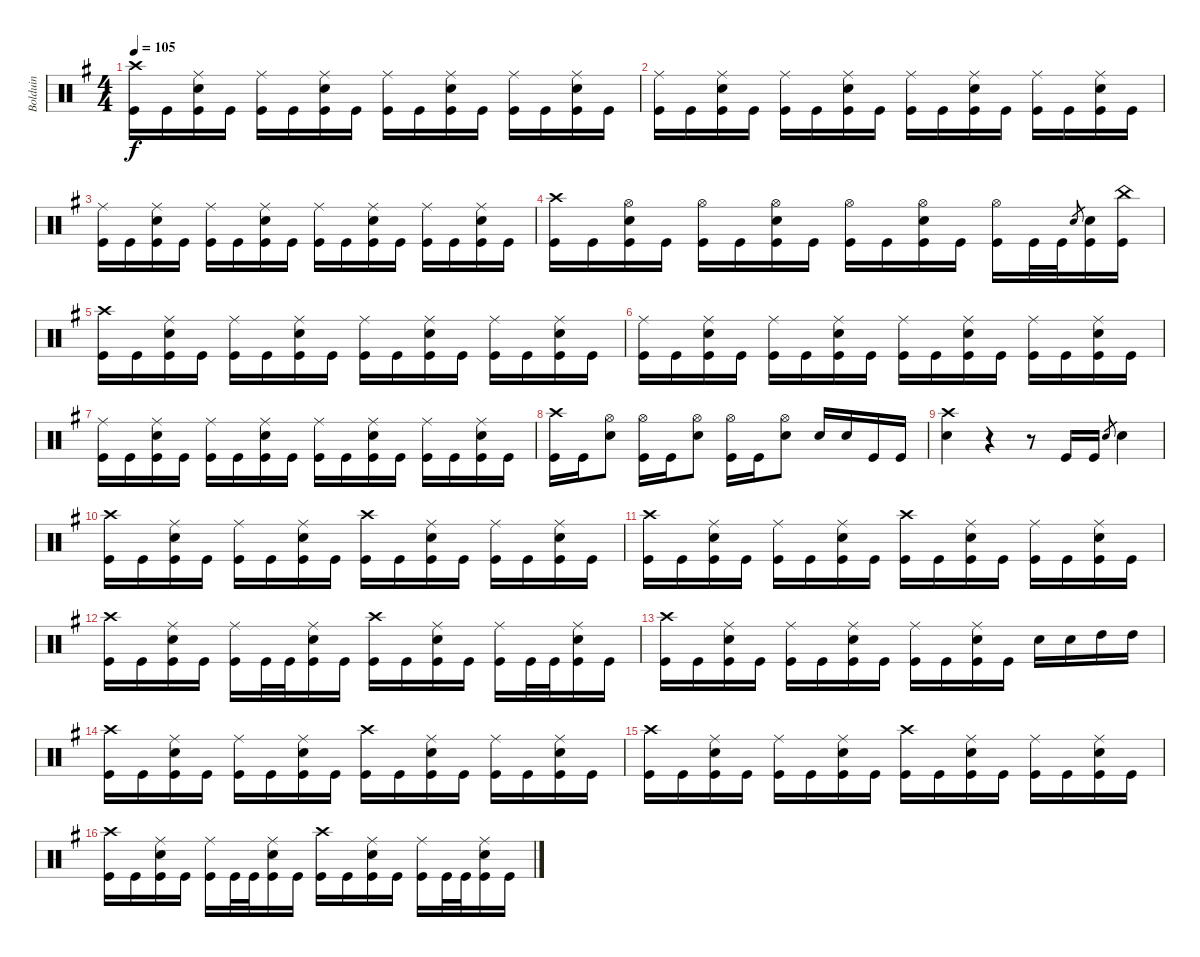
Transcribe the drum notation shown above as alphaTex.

\track ("Bolduin" "Bolduin") {instrument percussion}
\staff {score}
\articulation defaults
\ts (4 4)
\tempo 105
\clef neutral
\ks eminor
("Kick (hit)" "Crash high (hit)").16{dy f} "Kick (hit)".16 ("Kick (hit)" "Ride (middle)" "Snare (hit) 2").16 "Kick (hit)".16 ("Kick (hit)" "Ride (middle)").16 "Kick (hit)".16 ("Kick (hit)" "Ride (middle)" "Snare (hit) 2").16 "Kick (hit)".16 ("Kick (hit)" "Ride (middle)").16 "Kick (hit)".16 ("Kick (hit)" "Ride (middle)" "Snare (hit) 2").16 "Kick (hit)".16 ("Kick (hit)" "Ride (middle)").16 "Kick (hit)".16 ("Kick (hit)" "Ride (middle)" "Snare (hit) 2").16 "Kick (hit)".16 |
("Kick (hit)" "Ride (middle)").16 "Kick (hit)".16 ("Kick (hit)" "Ride (middle)" "Snare (hit) 2").16 "Kick (hit)".16 ("Kick (hit)" "Ride (middle)").16 "Kick (hit)".16 ("Kick (hit)" "Ride (middle)" "Snare (hit) 2").16 "Kick (hit)".16 ("Kick (hit)" "Ride (middle)").16 "Kick (hit)".16 ("Kick (hit)" "Ride (middle)" "Snare (hit) 2").16 "Kick (hit)".16 ("Kick (hit)" "Ride (middle)").16 "Kick (hit)".16 ("Kick (hit)" "Ride (middle)" "Snare (hit) 2").16 "Kick (hit)".16 |
("Kick (hit)" "Ride (middle)").16 "Kick (hit)".16 ("Kick (hit)" "Ride (middle)" "Snare (hit) 2").16 "Kick (hit)".16 ("Kick (hit)" "Ride (middle)").16 "Kick (hit)".16 ("Kick (hit)" "Ride (middle)" "Snare (hit) 2").16 "Kick (hit)".16 ("Kick (hit)" "Ride (middle)").16 "Kick (hit)".16 ("Kick (hit)" "Ride (middle)" "Snare (hit) 2").16 "Kick (hit)".16 ("Kick (hit)" "Ride (middle)").16 "Kick (hit)".16 ("Kick (hit)" "Ride (middle)" "Snare (hit) 2").16 "Kick (hit)".16 |
("Kick (hit)" "Crash high (hit)").16 "Kick (hit)".16 ("Kick (hit)" "Hi-Hat (open)" "Snare (hit) 2").16 "Kick (hit)".16 ("Kick (hit)" "Hi-Hat (open)").16 "Kick (hit)".16 ("Kick (hit)" "Hi-Hat (open)" "Snare (hit) 2").16 "Kick (hit)".16 ("Kick (hit)" "Hi-Hat (open)").16 "Kick (hit)".16 ("Kick (hit)" "Hi-Hat (open)" "Snare (hit) 2").16 "Kick (hit)".16 ("Kick (hit)" "Hi-Hat (open)").16 "Kick (hit)".32 "Kick (hit)".32 "Snare (hit) 2".8{gr} ("Kick (hit)" "Snare (hit) 2").16 ("Kick (hit)" "China (hit)").16 |
("Kick (hit)" "Crash high (hit)").16 "Kick (hit)".16 ("Kick (hit)" "Ride (middle)" "Snare (hit) 2").16 "Kick (hit)".16 ("Kick (hit)" "Ride (middle)").16 "Kick (hit)".16 ("Kick (hit)" "Ride (middle)" "Snare (hit) 2").16 "Kick (hit)".16 ("Kick (hit)" "Ride (middle)").16 "Kick (hit)".16 ("Kick (hit)" "Ride (middle)" "Snare (hit) 2").16 "Kick (hit)".16 ("Kick (hit)" "Ride (middle)").16 "Kick (hit)".16 ("Kick (hit)" "Ride (middle)" "Snare (hit) 2").16 "Kick (hit)".16 |
("Kick (hit)" "Ride (middle)").16 "Kick (hit)".16 ("Kick (hit)" "Ride (middle)" "Snare (hit) 2").16 "Kick (hit)".16 ("Kick (hit)" "Ride (middle)").16 "Kick (hit)".16 ("Kick (hit)" "Ride (middle)" "Snare (hit) 2").16 "Kick (hit)".16 ("Kick (hit)" "Ride (middle)").16 "Kick (hit)".16 ("Kick (hit)" "Ride (middle)" "Snare (hit) 2").16 "Kick (hit)".16 ("Kick (hit)" "Ride (middle)").16 "Kick (hit)".16 ("Kick (hit)" "Ride (middle)" "Snare (hit) 2").16 "Kick (hit)".16 |
("Kick (hit)" "Ride (middle)").16 "Kick (hit)".16 ("Kick (hit)" "Ride (middle)" "Snare (hit) 2").16 "Kick (hit)".16 ("Kick (hit)" "Ride (middle)").16 "Kick (hit)".16 ("Kick (hit)" "Ride (middle)" "Snare (hit) 2").16 "Kick (hit)".16 ("Kick (hit)" "Ride (middle)").16 "Kick (hit)".16 ("Kick (hit)" "Ride (middle)" "Snare (hit) 2").16 "Kick (hit)".16 ("Kick (hit)" "Ride (middle)").16 "Kick (hit)".16 ("Kick (hit)" "Ride (middle)" "Snare (hit) 2").16 "Kick (hit)".16 |
("Kick (hit)" "Crash high (hit)").16 "Kick (hit)".16 ("Hi-Hat (open)" "Snare (hit) 2").8 ("Kick (hit)" "Hi-Hat (open)").16 "Kick (hit)".16 ("Hi-Hat (open)" "Snare (hit) 2").8 ("Kick (hit)" "Hi-Hat (open)").16 "Kick (hit)".16 ("Hi-Hat (open)" "Snare (hit) 2").8 "Snare (hit) 2".16 "Snare (hit) 2".16 "Kick (hit)".16 "Kick (hit)".16 |
("Snare (hit) 2" "Crash high (hit)").4 r.4 r.8 "Kick (hit)".16 "Kick (hit)".16 "Snare (hit) 2".8{gr} "Snare (hit) 2".4 |
("Kick (hit)" "Crash high (hit)").16 "Kick (hit)".16 ("Kick (hit)" "Ride (middle)" "Snare (hit) 2").16 "Kick (hit)".16 ("Kick (hit)" "Ride (middle)").16 "Kick (hit)".16 ("Kick (hit)" "Ride (middle)" "Snare (hit) 2").16 "Kick (hit)".16 ("Kick (hit)" "Crash high (hit)").16 "Kick (hit)".16 ("Kick (hit)" "Ride (middle)" "Snare (hit) 2").16 "Kick (hit)".16 ("Kick (hit)" "Ride (middle)").16 "Kick (hit)".16 ("Kick (hit)" "Ride (middle)" "Snare (hit) 2").16 "Kick (hit)".16 |
("Kick (hit)" "Crash high (hit)").16 "Kick (hit)".16 ("Kick (hit)" "Ride (middle)" "Snare (hit) 2").16 "Kick (hit)".16 ("Kick (hit)" "Ride (middle)").16 "Kick (hit)".16 ("Kick (hit)" "Ride (middle)" "Snare (hit) 2").16 "Kick (hit)".16 ("Kick (hit)" "Crash high (hit)").16 "Kick (hit)".16 ("Kick (hit)" "Ride (middle)" "Snare (hit) 2").16 "Kick (hit)".16 ("Kick (hit)" "Ride (middle)").16 "Kick (hit)".16 ("Kick (hit)" "Ride (middle)" "Snare (hit) 2").16 "Kick (hit)".16 |
("Kick (hit)" "Crash high (hit)").16 "Kick (hit)".16 ("Kick (hit)" "Ride (middle)" "Snare (hit) 2").16 "Kick (hit)".16 ("Kick (hit)" "Ride (middle)").16 "Kick (hit)".32 "Kick (hit)".32 ("Kick (hit)" "Ride (middle)" "Snare (hit) 2").16 "Kick (hit)".16 ("Kick (hit)" "Crash high (hit)").16 "Kick (hit)".16 ("Kick (hit)" "Ride (middle)" "Snare (hit) 2").16 "Kick (hit)".16 ("Kick (hit)" "Ride (middle)").16 "Kick (hit)".32 "Kick (hit)".32 ("Kick (hit)" "Ride (middle)" "Snare (hit) 2").16 "Kick (hit)".16 |
("Kick (hit)" "Crash high (hit)").16 "Kick (hit)".16 ("Kick (hit)" "Ride (middle)" "Snare (hit) 2").16 "Kick (hit)".16 ("Kick (hit)" "Ride (middle)").16 "Kick (hit)".16 ("Kick (hit)" "Ride (middle)" "Snare (hit) 2").16 "Kick (hit)".16 ("Kick (hit)" "Ride (middle)").16 "Kick (hit)".16 ("Kick (hit)" "Ride (middle)" "Snare (hit) 2").16 "Kick (hit)".16 "Snare (hit) 2".16 "Snare (hit) 2".16 "High Tom (hit)".16 "High Tom (hit)".16 |
("Kick (hit)" "Crash high (hit)").16 "Kick (hit)".16 ("Kick (hit)" "Ride (middle)" "Snare (hit) 2").16 "Kick (hit)".16 ("Kick (hit)" "Ride (middle)").16 "Kick (hit)".16 ("Kick (hit)" "Ride (middle)" "Snare (hit) 2").16 "Kick (hit)".16 ("Kick (hit)" "Crash high (hit)").16 "Kick (hit)".16 ("Kick (hit)" "Ride (middle)" "Snare (hit) 2").16 "Kick (hit)".16 ("Kick (hit)" "Ride (middle)").16 "Kick (hit)".16 ("Kick (hit)" "Ride (middle)" "Snare (hit) 2").16 "Kick (hit)".16 |
("Kick (hit)" "Crash high (hit)").16 "Kick (hit)".16 ("Kick (hit)" "Ride (middle)" "Snare (hit) 2").16 "Kick (hit)".16 ("Kick (hit)" "Ride (middle)").16 "Kick (hit)".16 ("Kick (hit)" "Ride (middle)" "Snare (hit) 2").16 "Kick (hit)".16 ("Kick (hit)" "Crash high (hit)").16 "Kick (hit)".16 ("Kick (hit)" "Ride (middle)" "Snare (hit) 2").16 "Kick (hit)".16 ("Kick (hit)" "Ride (middle)").16 "Kick (hit)".16 ("Kick (hit)" "Ride (middle)" "Snare (hit) 2").16 "Kick (hit)".16 |
("Kick (hit)" "Crash high (hit)").16 "Kick (hit)".16 ("Kick (hit)" "Ride (middle)" "Snare (hit) 2").16 "Kick (hit)".16 ("Kick (hit)" "Ride (middle)").16 "Kick (hit)".32 "Kick (hit)".32 ("Kick (hit)" "Ride (middle)" "Snare (hit) 2").16 "Kick (hit)".16 ("Kick (hit)" "Crash high (hit)").16 "Kick (hit)".16 ("Kick (hit)" "Ride (middle)" "Snare (hit) 2").16 "Kick (hit)".16 ("Kick (hit)" "Ride (middle)").16 "Kick (hit)".32 "Kick (hit)".32 ("Kick (hit)" "Ride (middle)" "Snare (hit) 2").16 "Kick (hit)".16
